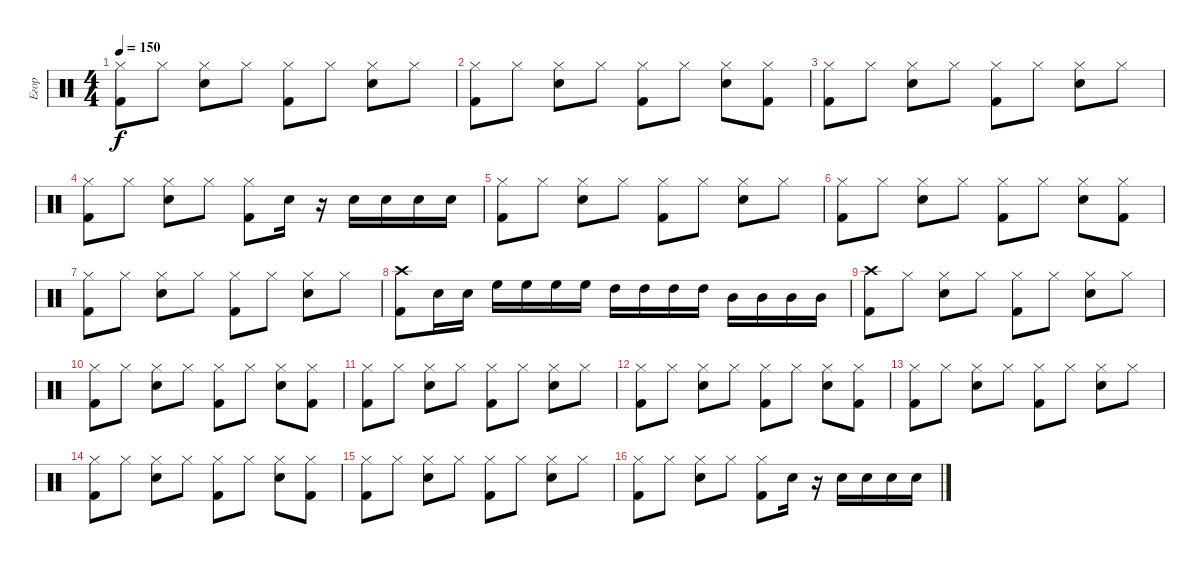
\track ("Егор" "Егор") {instrument percussion}
\staff {score}
\articulation defaults
\ts (4 4)
\tempo 150
\clef neutral
\ks c
("Hi-Hat (closed)" "Kick (hit) 2").8{dy f} "Hi-Hat (closed)".8 ("Hi-Hat (closed)" "Snare (hit) 2").8 "Hi-Hat (closed)".8 ("Hi-Hat (closed)" "Kick (hit) 2").8 "Hi-Hat (closed)".8 ("Hi-Hat (closed)" "Snare (hit) 2").8 "Hi-Hat (closed)".8 |
("Hi-Hat (closed)" "Kick (hit) 2").8 "Hi-Hat (closed)".8 ("Hi-Hat (closed)" "Snare (hit) 2").8 "Hi-Hat (closed)".8 ("Hi-Hat (closed)" "Kick (hit) 2").8 "Hi-Hat (closed)".8 ("Hi-Hat (closed)" "Snare (hit) 2").8 ("Hi-Hat (closed)" "Kick (hit) 2").8 |
("Hi-Hat (closed)" "Kick (hit) 2").8 "Hi-Hat (closed)".8 ("Hi-Hat (closed)" "Snare (hit) 2").8 "Hi-Hat (closed)".8 ("Hi-Hat (closed)" "Kick (hit) 2").8 "Hi-Hat (closed)".8 ("Hi-Hat (closed)" "Snare (hit) 2").8 "Hi-Hat (closed)".8 |
("Hi-Hat (closed)" "Kick (hit) 2").8 "Hi-Hat (closed)".8 ("Hi-Hat (closed)" "Snare (hit) 2").8 "Hi-Hat (closed)".8 ("Hi-Hat (closed)" "Kick (hit) 2").8 "Snare (hit) 2".16 r.16 "Snare (hit) 2".16 "Snare (hit) 2".16 "Snare (hit) 2".16 "Snare (hit) 2".16 |
("Hi-Hat (closed)" "Kick (hit) 2").8 "Hi-Hat (closed)".8 ("Hi-Hat (closed)" "Snare (hit) 2").8 "Hi-Hat (closed)".8 ("Hi-Hat (closed)" "Kick (hit) 2").8 "Hi-Hat (closed)".8 ("Hi-Hat (closed)" "Snare (hit) 2").8 "Hi-Hat (closed)".8 |
("Hi-Hat (closed)" "Kick (hit) 2").8 "Hi-Hat (closed)".8 ("Hi-Hat (closed)" "Snare (hit) 2").8 "Hi-Hat (closed)".8 ("Hi-Hat (closed)" "Kick (hit) 2").8 "Hi-Hat (closed)".8 ("Hi-Hat (closed)" "Snare (hit) 2").8 ("Hi-Hat (closed)" "Kick (hit) 2").8 |
("Hi-Hat (closed)" "Kick (hit) 2").8 "Hi-Hat (closed)".8 ("Hi-Hat (closed)" "Snare (hit) 2").8 "Hi-Hat (closed)".8 ("Hi-Hat (closed)" "Kick (hit) 2").8 "Hi-Hat (closed)".8 ("Hi-Hat (closed)" "Snare (hit) 2").8 "Hi-Hat (closed)".8 |
("Crash high (hit)" "Kick (hit) 2").8 "Snare (hit) 2".16 "Snare (hit) 2".16 "High Floor Tom (hit)".16 "High Floor Tom (hit)".16 "High Floor Tom (hit)".16 "High Floor Tom (hit)".16 "High Tom (hit)".16 "High Tom (hit)".16 "High Tom (hit)".16 "High Tom (hit)".16 "Mid Tom (hit)".16 "Mid Tom (hit)".16 "Mid Tom (hit)".16 "Mid Tom (hit)".16 |
("Crash high (hit)" "Kick (hit) 2").8 "Hi-Hat (closed)".8 ("Hi-Hat (closed)" "Snare (hit) 2").8 "Hi-Hat (closed)".8 ("Hi-Hat (closed)" "Kick (hit) 2").8 "Hi-Hat (closed)".8 ("Hi-Hat (closed)" "Snare (hit) 2").8 "Hi-Hat (closed)".8 |
("Hi-Hat (closed)" "Kick (hit) 2").8 "Hi-Hat (closed)".8 ("Hi-Hat (closed)" "Snare (hit) 2").8 "Hi-Hat (closed)".8 ("Hi-Hat (closed)" "Kick (hit) 2").8 "Hi-Hat (closed)".8 ("Hi-Hat (closed)" "Snare (hit) 2").8 ("Hi-Hat (closed)" "Kick (hit) 2").8 |
("Hi-Hat (closed)" "Kick (hit) 2").8 "Hi-Hat (closed)".8 ("Hi-Hat (closed)" "Snare (hit) 2").8 "Hi-Hat (closed)".8 ("Hi-Hat (closed)" "Kick (hit) 2").8 "Hi-Hat (closed)".8 ("Hi-Hat (closed)" "Snare (hit) 2").8 "Hi-Hat (closed)".8 |
("Hi-Hat (closed)" "Kick (hit) 2").8 "Hi-Hat (closed)".8 ("Hi-Hat (closed)" "Snare (hit) 2").8 "Hi-Hat (closed)".8 ("Hi-Hat (closed)" "Kick (hit) 2").8 "Hi-Hat (closed)".8 ("Hi-Hat (closed)" "Snare (hit) 2").8 ("Hi-Hat (closed)" "Kick (hit) 2").8 |
("Hi-Hat (closed)" "Kick (hit) 2").8 "Hi-Hat (closed)".8 ("Hi-Hat (closed)" "Snare (hit) 2").8 "Hi-Hat (closed)".8 ("Hi-Hat (closed)" "Kick (hit) 2").8 "Hi-Hat (closed)".8 ("Hi-Hat (closed)" "Snare (hit) 2").8 "Hi-Hat (closed)".8 |
("Hi-Hat (closed)" "Kick (hit) 2").8 "Hi-Hat (closed)".8 ("Hi-Hat (closed)" "Snare (hit) 2").8 "Hi-Hat (closed)".8 ("Hi-Hat (closed)" "Kick (hit) 2").8 "Hi-Hat (closed)".8 ("Hi-Hat (closed)" "Snare (hit) 2").8 ("Hi-Hat (closed)" "Kick (hit) 2").8 |
("Hi-Hat (closed)" "Kick (hit) 2").8 "Hi-Hat (closed)".8 ("Hi-Hat (closed)" "Snare (hit) 2").8 "Hi-Hat (closed)".8 ("Hi-Hat (closed)" "Kick (hit) 2").8 "Hi-Hat (closed)".8 ("Hi-Hat (closed)" "Snare (hit) 2").8 "Hi-Hat (closed)".8 |
("Hi-Hat (closed)" "Kick (hit) 2").8 "Hi-Hat (closed)".8 ("Hi-Hat (closed)" "Snare (hit) 2").8 "Hi-Hat (closed)".8 ("Hi-Hat (closed)" "Kick (hit) 2").8 "Snare (hit) 2".16 r.16 "Snare (hit) 2".16 "Snare (hit) 2".16 "Snare (hit) 2".16 "Snare (hit) 2".16
